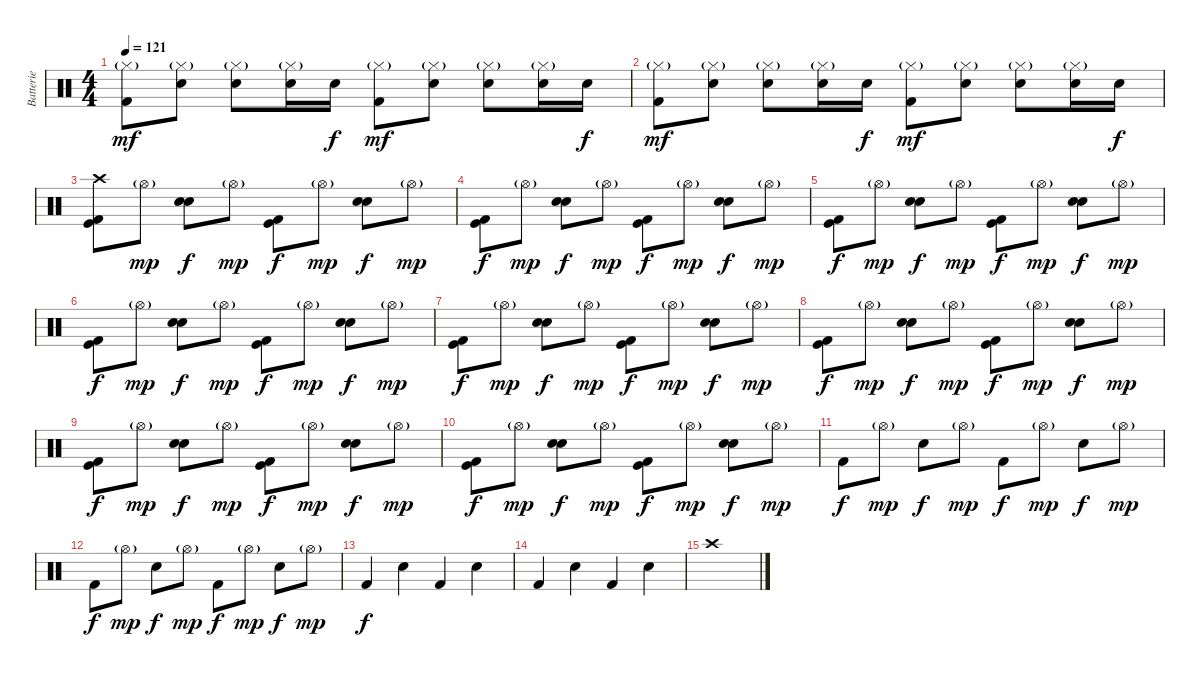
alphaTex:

\track ("Batterie" "Batterie") {instrument percussion}
\staff {score}
\articulation defaults
\ts (4 4)
\tempo 121
\clef neutral
\ks c
("Hi-Hat (closed)"{g} "Kick (hit) 2").8{dy mf volume 13} ("Hi-Hat (closed)"{g} "Electric Snare (hit)").8 ("Hi-Hat (closed)"{g} "Electric Snare (hit)").8 ("Hi-Hat (closed)"{g} "Electric Snare (hit)").16 "Electric Snare (hit)".16{dy f} ("Hi-Hat (closed)"{g} "Kick (hit) 2").8{dy mf} ("Hi-Hat (closed)"{g} "Electric Snare (hit)").8 ("Hi-Hat (closed)"{g} "Electric Snare (hit)").8 ("Hi-Hat (closed)"{g} "Electric Snare (hit)").16 "Electric Snare (hit)".16{dy f} |
("Hi-Hat (closed)"{g} "Kick (hit) 2").8{dy mf} ("Hi-Hat (closed)"{g} "Electric Snare (hit)").8 ("Hi-Hat (closed)"{g} "Electric Snare (hit)").8 ("Hi-Hat (closed)"{g} "Electric Snare (hit)").16 "Electric Snare (hit)".16{dy f} ("Hi-Hat (closed)"{g} "Kick (hit) 2").8{dy mf} ("Hi-Hat (closed)"{g} "Electric Snare (hit)").8 ("Hi-Hat (closed)"{g} "Electric Snare (hit)").8 ("Hi-Hat (closed)"{g} "Electric Snare (hit)").16 "Electric Snare (hit)".16{dy f} |
("Crash high (hit)" "Kick (hit)" "Kick (hit) 2").8 "Hi-Hat (open)"{g}.8{dy mp} ("Electric Snare (hit)" "Electric Snare (hit)").8{dy f} "Hi-Hat (open)"{g}.8{dy mp} ("Kick (hit)" "Kick (hit) 2").8{dy f} "Hi-Hat (open)"{g}.8{dy mp} ("Electric Snare (hit)" "Electric Snare (hit)").8{dy f} "Hi-Hat (open)"{g}.8{dy mp} |
("Kick (hit)" "Kick (hit) 2").8{dy f} "Hi-Hat (open)"{g}.8{dy mp} ("Electric Snare (hit)" "Electric Snare (hit)").8{dy f} "Hi-Hat (open)"{g}.8{dy mp} ("Kick (hit)" "Kick (hit) 2").8{dy f} "Hi-Hat (open)"{g}.8{dy mp} ("Electric Snare (hit)" "Electric Snare (hit)").8{dy f} "Hi-Hat (open)"{g}.8{dy mp} |
("Kick (hit)" "Kick (hit) 2").8{dy f} "Hi-Hat (open)"{g}.8{dy mp} ("Electric Snare (hit)" "Electric Snare (hit)").8{dy f} "Hi-Hat (open)"{g}.8{dy mp} ("Kick (hit)" "Kick (hit) 2").8{dy f} "Hi-Hat (open)"{g}.8{dy mp} ("Electric Snare (hit)" "Electric Snare (hit)").8{dy f} "Hi-Hat (open)"{g}.8{dy mp} |
("Kick (hit)" "Kick (hit) 2").8{dy f} "Hi-Hat (open)"{g}.8{dy mp} ("Electric Snare (hit)" "Electric Snare (hit)").8{dy f} "Hi-Hat (open)"{g}.8{dy mp} ("Kick (hit)" "Kick (hit) 2").8{dy f} "Hi-Hat (open)"{g}.8{dy mp} ("Electric Snare (hit)" "Electric Snare (hit)").8{dy f} "Hi-Hat (open)"{g}.8{dy mp} |
("Kick (hit)" "Kick (hit) 2").8{dy f} "Hi-Hat (open)"{g}.8{dy mp} ("Electric Snare (hit)" "Electric Snare (hit)").8{dy f} "Hi-Hat (open)"{g}.8{dy mp} ("Kick (hit)" "Kick (hit) 2").8{dy f} "Hi-Hat (open)"{g}.8{dy mp} ("Electric Snare (hit)" "Electric Snare (hit)").8{dy f} "Hi-Hat (open)"{g}.8{dy mp} |
("Kick (hit)" "Kick (hit) 2").8{dy f} "Hi-Hat (open)"{g}.8{dy mp} ("Electric Snare (hit)" "Electric Snare (hit)").8{dy f} "Hi-Hat (open)"{g}.8{dy mp} ("Kick (hit)" "Kick (hit) 2").8{dy f} "Hi-Hat (open)"{g}.8{dy mp} ("Electric Snare (hit)" "Electric Snare (hit)").8{dy f} "Hi-Hat (open)"{g}.8{dy mp} |
("Kick (hit)" "Kick (hit) 2").8{dy f} "Hi-Hat (open)"{g}.8{dy mp} ("Electric Snare (hit)" "Electric Snare (hit)").8{dy f} "Hi-Hat (open)"{g}.8{dy mp} ("Kick (hit)" "Kick (hit) 2").8{dy f} "Hi-Hat (open)"{g}.8{dy mp} ("Electric Snare (hit)" "Electric Snare (hit)").8{dy f} "Hi-Hat (open)"{g}.8{dy mp} |
("Kick (hit)" "Kick (hit) 2").8{dy f} "Hi-Hat (open)"{g}.8{dy mp} ("Electric Snare (hit)" "Electric Snare (hit)").8{dy f} "Hi-Hat (open)"{g}.8{dy mp} ("Kick (hit)" "Kick (hit) 2").8{dy f} "Hi-Hat (open)"{g}.8{dy mp} ("Electric Snare (hit)" "Electric Snare (hit)").8{dy f} "Hi-Hat (open)"{g}.8{dy mp} |
"Kick (hit) 2".8{dy f} "Hi-Hat (open)"{g}.8{dy mp} "Snare (hit) 2".8{dy f} "Hi-Hat (open)"{g}.8{dy mp} "Kick (hit) 2".8{dy f} "Hi-Hat (open)"{g}.8{dy mp} "Snare (hit) 2".8{dy f} "Hi-Hat (open)"{g}.8{dy mp} |
"Kick (hit) 2".8{dy f} "Hi-Hat (open)"{g}.8{dy mp} "Snare (hit) 2".8{dy f} "Hi-Hat (open)"{g}.8{dy mp} "Kick (hit) 2".8{dy f} "Hi-Hat (open)"{g}.8{dy mp} "Snare (hit) 2".8{dy f} "Hi-Hat (open)"{g}.8{dy mp} |
"Kick (hit) 2".4{dy f} "Snare (hit) 2".4 "Kick (hit) 2".4 "Snare (hit) 2".4 |
"Kick (hit) 2".4 "Snare (hit) 2".4 "Kick (hit) 2".4 "Snare (hit) 2".4 |
"Crash high (hit)".1
